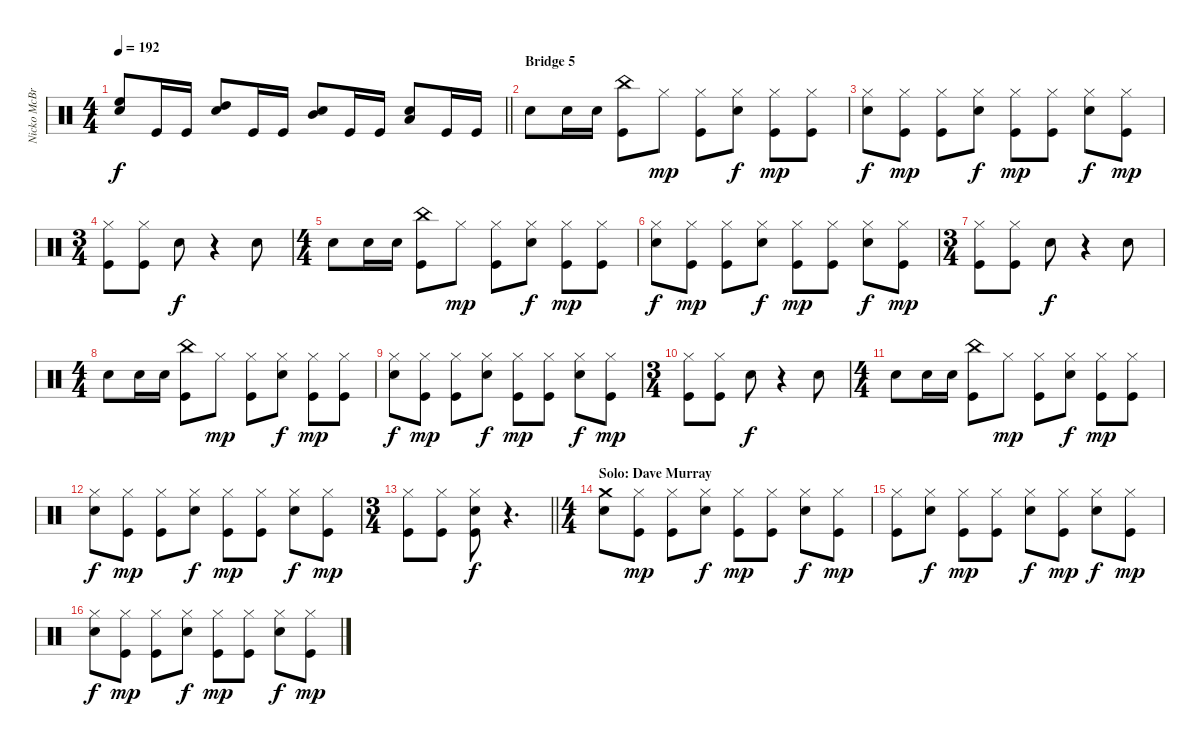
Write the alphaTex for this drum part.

\track ("Nicko McBrain" "Nicko McBr") {instrument percussion}
\staff {score}
\articulation defaults
\ts (4 4)
\tempo 192
\clef neutral
\barLineRight lightlight
\ks c
("High Floor Tom (hit)" "Electric Snare (hit)").8{dy f} "Kick (hit)".16 "Kick (hit)".16 ("High Tom (hit)" "Electric Snare (hit)").8 "Kick (hit)".16 "Kick (hit)".16 ("Electric Snare (hit)" "Mid Tom (hit)").8 "Kick (hit)".16 "Kick (hit)".16 ("Electric Snare (hit)" "Low Tom (hit)").8 "Kick (hit)".16 "Kick (hit)".16 |
\section ("" "Bridge 5")
"Electric Snare (hit)".8 "Electric Snare (hit)".16 "Electric Snare (hit)".16 ("China (hit)" "Kick (hit)").8 "Hi-Hat (closed)".8{dy mp} ("Hi-Hat (closed)" "Kick (hit)").8 ("Hi-Hat (closed)" "Electric Snare (hit)").8{dy f} ("Hi-Hat (closed)" "Kick (hit)").8{dy mp} ("Hi-Hat (closed)" "Kick (hit)").8 |
("Hi-Hat (closed)" "Electric Snare (hit)").8{dy f} ("Hi-Hat (closed)" "Kick (hit)").8{dy mp} ("Hi-Hat (closed)" "Kick (hit)").8 ("Hi-Hat (closed)" "Electric Snare (hit)").8{dy f} ("Hi-Hat (closed)" "Kick (hit)").8{dy mp} ("Hi-Hat (closed)" "Kick (hit)").8 ("Hi-Hat (closed)" "Electric Snare (hit)").8{dy f} ("Hi-Hat (closed)" "Kick (hit)").8{dy mp} |
\ts (3 4)
("Hi-Hat (closed)" "Kick (hit)").8 ("Hi-Hat (closed)" "Kick (hit)").8 "Electric Snare (hit)".8{dy f} r.4 "Electric Snare (hit)".8 |
\ts (4 4)
"Electric Snare (hit)".8 "Electric Snare (hit)".16 "Electric Snare (hit)".16 ("China (hit)" "Kick (hit)").8 "Hi-Hat (closed)".8{dy mp} ("Hi-Hat (closed)" "Kick (hit)").8 ("Hi-Hat (closed)" "Electric Snare (hit)").8{dy f} ("Hi-Hat (closed)" "Kick (hit)").8{dy mp} ("Hi-Hat (closed)" "Kick (hit)").8 |
("Hi-Hat (closed)" "Electric Snare (hit)").8{dy f} ("Hi-Hat (closed)" "Kick (hit)").8{dy mp} ("Hi-Hat (closed)" "Kick (hit)").8 ("Hi-Hat (closed)" "Electric Snare (hit)").8{dy f} ("Hi-Hat (closed)" "Kick (hit)").8{dy mp} ("Hi-Hat (closed)" "Kick (hit)").8 ("Hi-Hat (closed)" "Electric Snare (hit)").8{dy f} ("Hi-Hat (closed)" "Kick (hit)").8{dy mp} |
\ts (3 4)
("Hi-Hat (closed)" "Kick (hit)").8 ("Hi-Hat (closed)" "Kick (hit)").8 "Electric Snare (hit)".8{dy f} r.4 "Electric Snare (hit)".8 |
\ts (4 4)
"Electric Snare (hit)".8 "Electric Snare (hit)".16 "Electric Snare (hit)".16 ("China (hit)" "Kick (hit)").8 "Hi-Hat (closed)".8{dy mp} ("Hi-Hat (closed)" "Kick (hit)").8 ("Hi-Hat (closed)" "Electric Snare (hit)").8{dy f} ("Hi-Hat (closed)" "Kick (hit)").8{dy mp} ("Hi-Hat (closed)" "Kick (hit)").8 |
("Hi-Hat (closed)" "Electric Snare (hit)").8{dy f} ("Hi-Hat (closed)" "Kick (hit)").8{dy mp} ("Hi-Hat (closed)" "Kick (hit)").8 ("Hi-Hat (closed)" "Electric Snare (hit)").8{dy f} ("Hi-Hat (closed)" "Kick (hit)").8{dy mp} ("Hi-Hat (closed)" "Kick (hit)").8 ("Hi-Hat (closed)" "Electric Snare (hit)").8{dy f} ("Hi-Hat (closed)" "Kick (hit)").8{dy mp} |
\ts (3 4)
("Hi-Hat (closed)" "Kick (hit)").8 ("Hi-Hat (closed)" "Kick (hit)").8 "Electric Snare (hit)".8{dy f} r.4 "Electric Snare (hit)".8 |
\ts (4 4)
"Electric Snare (hit)".8 "Electric Snare (hit)".16 "Electric Snare (hit)".16 ("China (hit)" "Kick (hit)").8 "Hi-Hat (closed)".8{dy mp} ("Hi-Hat (closed)" "Kick (hit)").8 ("Hi-Hat (closed)" "Electric Snare (hit)").8{dy f} ("Hi-Hat (closed)" "Kick (hit)").8{dy mp} ("Hi-Hat (closed)" "Kick (hit)").8 |
("Hi-Hat (closed)" "Electric Snare (hit)").8{dy f} ("Hi-Hat (closed)" "Kick (hit)").8{dy mp} ("Hi-Hat (closed)" "Kick (hit)").8 ("Hi-Hat (closed)" "Electric Snare (hit)").8{dy f} ("Hi-Hat (closed)" "Kick (hit)").8{dy mp} ("Hi-Hat (closed)" "Kick (hit)").8 ("Hi-Hat (closed)" "Electric Snare (hit)").8{dy f} ("Hi-Hat (closed)" "Kick (hit)").8{dy mp} |
\ts (3 4)
\barLineRight lightlight
("Hi-Hat (closed)" "Kick (hit)").8 ("Hi-Hat (closed)" "Kick (hit)").8 ("Hi-Hat (closed)" "Electric Snare (hit)" "Kick (hit)").8{dy f} r.4{d} |
\ts (4 4)
\section ("" "Solo: Dave Murray")
("Crash medium (hit)" "Electric Snare (hit)").8 ("Hi-Hat (closed)" "Kick (hit)").8{dy mp} ("Hi-Hat (closed)" "Kick (hit)").8 ("Hi-Hat (closed)" "Electric Snare (hit)").8{dy f} ("Hi-Hat (closed)" "Kick (hit)").8{dy mp} ("Hi-Hat (closed)" "Kick (hit)").8 ("Hi-Hat (closed)" "Electric Snare (hit)").8{dy f} ("Hi-Hat (closed)" "Kick (hit)").8{dy mp} |
("Hi-Hat (closed)" "Kick (hit)").8 ("Hi-Hat (closed)" "Electric Snare (hit)").8{dy f} ("Hi-Hat (closed)" "Kick (hit)").8{dy mp} ("Hi-Hat (closed)" "Kick (hit)").8 ("Hi-Hat (closed)" "Electric Snare (hit)").8{dy f} ("Hi-Hat (closed)" "Kick (hit)").8{dy mp} ("Hi-Hat (closed)" "Electric Snare (hit)").8{dy f} ("Hi-Hat (closed)" "Kick (hit)").8{dy mp} |
("Hi-Hat (closed)" "Electric Snare (hit)").8{dy f} ("Hi-Hat (closed)" "Kick (hit)").8{dy mp} ("Hi-Hat (closed)" "Kick (hit)").8 ("Hi-Hat (closed)" "Electric Snare (hit)").8{dy f} ("Hi-Hat (closed)" "Kick (hit)").8{dy mp} ("Hi-Hat (closed)" "Kick (hit)").8 ("Hi-Hat (closed)" "Electric Snare (hit)").8{dy f} ("Hi-Hat (closed)" "Kick (hit)").8{dy mp}
